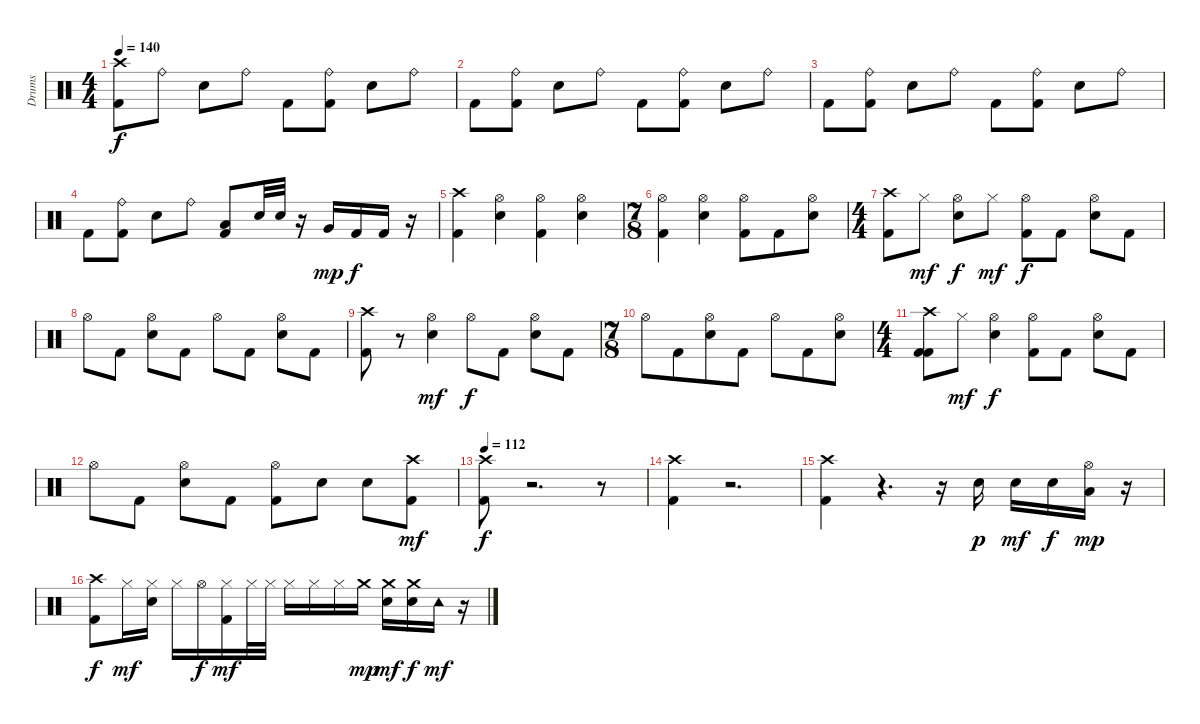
\track ("Drums" "Drums") {instrument percussion}
\staff {score}
\articulation defaults
\ts (4 4)
\tempo 140
\clef neutral
\ks c
("Kick (hit) 2" "Crash high (hit)").8{dy f} "Ride (bell)".8 "Electric Snare (hit)".8 "Ride (bell)".8 "Kick (hit) 2".8 ("Ride (bell)" "Kick (hit) 2").8 "Electric Snare (hit)".8 "Ride (bell)".8 |
"Kick (hit) 2".8 ("Ride (bell)" "Kick (hit) 2").8 "Electric Snare (hit)".8 "Ride (bell)".8 "Kick (hit) 2".8 ("Ride (bell)" "Kick (hit) 2").8 "Electric Snare (hit)".8 "Ride (bell)".8 |
"Kick (hit) 2".8 ("Kick (hit) 2" "Ride (bell)").8 "Electric Snare (hit)".8 "Ride (bell)".8 "Kick (hit) 2".8 ("Ride (bell)" "Kick (hit) 2").8 "Electric Snare (hit)".8 "Ride (bell)".8 |
"Kick (hit) 2".8 ("Kick (hit) 2" "Ride (bell)").8 "Electric Snare (hit)".8 "Ride (bell)".8 ("Low Tom (hit)" "Kick (hit) 2").8 "Electric Snare (hit)".32 "Electric Snare (hit)".32 r.16 "Very Low Tom (hit)".16{dy mp} "Kick (hit) 2".16{dy f} "Kick (hit) 2".16 r.16 |
("Crash high (hit)" "Kick (hit) 2").4 ("Electric Snare (hit)" "Hi-Hat (open)").4 ("Kick (hit) 2" "Hi-Hat (open)").4 ("Electric Snare (hit)" "Hi-Hat (open)").4 |
\ts (7 8)
("Kick (hit) 2" "Hi-Hat (open)").4 ("Electric Snare (hit)" "Hi-Hat (open)").4 ("Hi-Hat (open)" "Kick (hit) 2").8 "Kick (hit) 2".8 ("Electric Snare (hit)" "Hi-Hat (open)").8 |
\ts (4 4)
("Kick (hit) 2" "Crash high (hit)").8 "Hi-Hat (closed)".8{dy mf} ("Electric Snare (hit)" "Hi-Hat (open)").8{dy f} "Hi-Hat (closed)".8{dy mf} ("Kick (hit) 2" "Hi-Hat (open)").8{dy f} "Kick (hit) 2".8 ("Electric Snare (hit)" "Hi-Hat (open)").8 "Kick (hit) 2".8 |
"Hi-Hat (open)".8 "Kick (hit) 2".8 ("Hi-Hat (open)" "Electric Snare (hit)").8 "Kick (hit) 2".8 "Hi-Hat (open)".8 "Kick (hit) 2".8 ("Hi-Hat (open)" "Electric Snare (hit)").8 "Kick (hit) 2".8 |
("Crash high (hit)" "Kick (hit) 2").8 r.8 ("Electric Snare (hit)" "Hi-Hat (open)").4{dy mf} "Hi-Hat (open)".8{dy f} "Kick (hit) 2".8 ("Electric Snare (hit)" "Hi-Hat (open)").8 "Kick (hit) 2".8 |
\ts (7 8)
"Hi-Hat (open)".8 "Kick (hit) 2".8 ("Hi-Hat (open)" "Electric Snare (hit)").8 "Kick (hit) 2".8 "Hi-Hat (open)".8 "Kick (hit) 2".8 ("Electric Snare (hit)" "Hi-Hat (open)").8 |
\ts (4 4)
("Kick (hit) 2" "Crash high (hit)" "Kick (hit) 2").8 "Hi-Hat (closed)".8{dy mf} ("Electric Snare (hit)" "Hi-Hat (open)").4{dy f} ("Kick (hit) 2" "Hi-Hat (open)").8 "Kick (hit) 2".8 ("Electric Snare (hit)" "Hi-Hat (open)").8 "Kick (hit) 2".8 |
"Hi-Hat (open)".8 "Kick (hit) 2".8 ("Hi-Hat (open)" "Electric Snare (hit)").8 "Kick (hit) 2".8 ("Hi-Hat (open)" "Kick (hit) 2").8 "Electric Snare (hit)".8 "Electric Snare (hit)".8 ("Kick (hit) 2" "Crash high (hit)").8{dy mf} |
\tempo 112
("Crash high (hit)" "Kick (hit) 2").8{dy f} r.2{d} r.8 |
("Crash high (hit)" "Kick (hit) 2").4 r.2{d} |
("Crash high (hit)" "Kick (hit) 2").4 r.4{d} r.16 "Electric Snare (hit)".16{dy p} "Electric Snare (hit)".16{dy mf} "Electric Snare (hit)".16{dy f} ("Low Tom (hit)" "Hi-Hat (open)").16{dy mp} r.16 |
("Crash high (hit)" "Kick (hit) 2").8{dy f} "Hi-Hat (closed)".16{dy mf} ("Electric Snare (hit)" "Hi-Hat (closed)").16 "Hi-Hat (closed)".16 "Hi-Hat (open)".16{dy f} ("Kick (hit) 2" "Hi-Hat (closed)").16{dy mf} "Hi-Hat (closed)".32 "Hi-Hat (closed)".32 "Hi-Hat (closed)".16 "Hi-Hat (closed)".16 "Hi-Hat (closed)".16 "Crash medium (hit)".16{dy mp} ("Electric Snare (hit)" "Crash medium (hit)").16{dy mf} ("Electric Snare (hit)" "Crash medium (hit)").16{dy f} "Tambourine (hit)".16{dy mf} r.16
